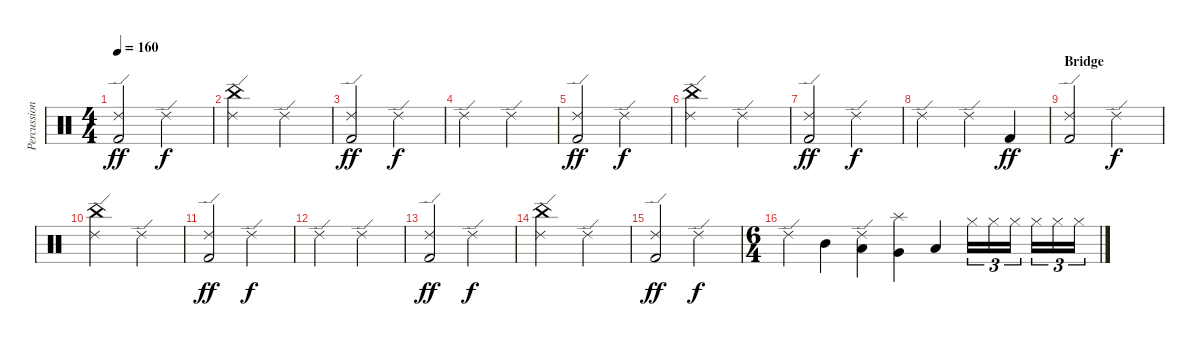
\track ("Percussion" "Percussion") {instrument percussion}
\staff {score}
\articulation defaults
\ts (4 4)
\tempo 160
\clef neutral
\ks c
("Ride (edge) 2" "Kick (hit) 2").2{dy ff} "Ride (edge) 2".2{dy f} |
("China (hit)" "Ride (edge) 2").2 "Ride (edge) 2".2 |
("Ride (edge) 2" "Kick (hit) 2").2{dy ff} "Ride (edge) 2".2{dy f} |
"Ride (edge) 2".2 "Ride (edge) 2".2 |
("Ride (edge) 2" "Kick (hit) 2").2{dy ff} "Ride (edge) 2".2{dy f} |
("China (hit)" "Ride (edge) 2").2 "Ride (edge) 2".2 |
("Ride (edge) 2" "Kick (hit) 2").2{dy ff} "Ride (edge) 2".2{dy f} |
"Ride (edge) 2".2 "Ride (edge) 2".4 "Kick (hit) 2".4{dy ff} |
\section ("" "Bridge")
("Ride (edge) 2" "Kick (hit) 2").2 "Ride (edge) 2".2{dy f} |
("China (hit)" "Ride (edge) 2").2 "Ride (edge) 2".2 |
("Ride (edge) 2" "Kick (hit) 2").2{dy ff} "Ride (edge) 2".2{dy f} |
"Ride (edge) 2".2 "Ride (edge) 2".2 |
("Ride (edge) 2" "Kick (hit) 2").2{dy ff} "Ride (edge) 2".2{dy f} |
("China (hit)" "Ride (edge) 2").2 "Ride (edge) 2".2 |
("Ride (edge) 2" "Kick (hit) 2").2{dy ff} "Ride (edge) 2".2{dy f} |
\ts (6 4)
"Ride (edge) 2".4 "Mid Tom (hit)".4 ("Ride (edge) 2" "Low Tom (hit)").4 ("Splash (hit)" "Very Low Tom (hit)").4 "Low Floor Tom (hit)".4 "Hi-Hat (closed)".16{tu (3 2)} "Hi-Hat (closed)".16{tu (3 2)} "Hi-Hat (closed)".16{tu (3 2)} "Hi-Hat (closed)".16{tu (3 2)} "Hi-Hat (closed)".16{tu (3 2)} "Hi-Hat (closed)".16{tu (3 2)}
